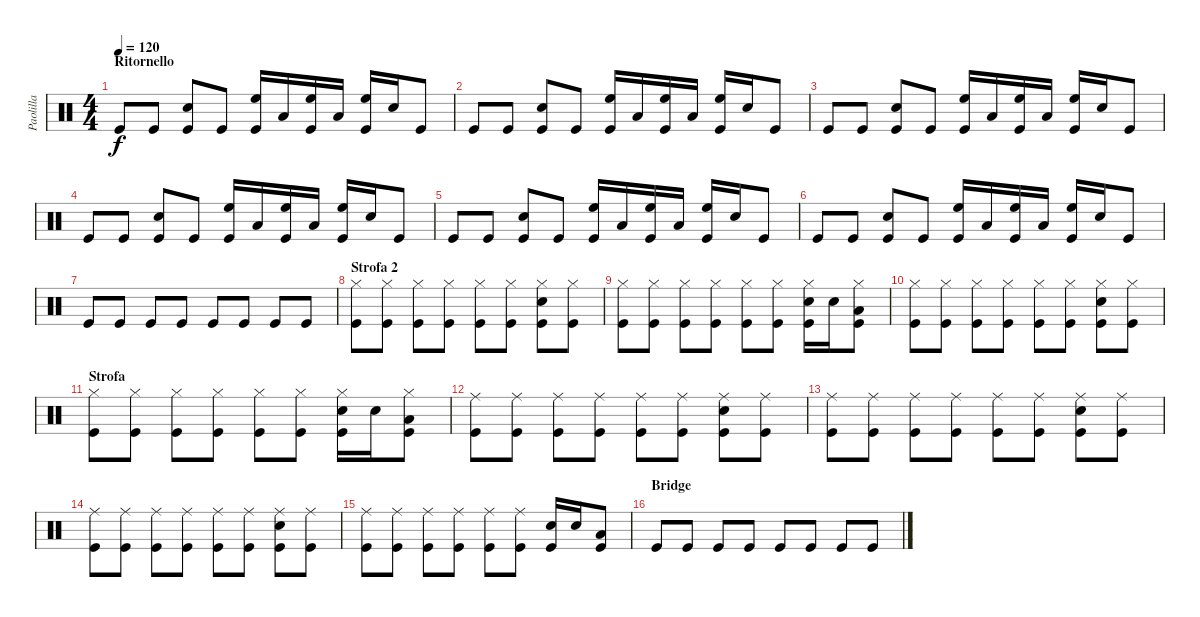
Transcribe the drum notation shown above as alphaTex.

\track ("Paolilla" "Paolilla") {instrument percussion}
\staff {score}
\articulation defaults
\ts (4 4)
\section ("" "Ritornello")
\tempo 120
\clef neutral
\ks c "Kick (hit)".8{dy f} "Kick (hit)".8
("Kick (hit)" "Snare (hit) 2").8 "Kick (hit)".8 ("High Floor Tom (hit)" "Kick (hit)").16 "Low Tom (hit)".16 ("High Floor Tom (hit)" "Kick (hit)").16 "Low Tom (hit)".16 ("High Floor Tom (hit)" "Kick (hit)").16 "Snare (hit) 2".16 "Kick (hit)".8 |
"Kick (hit)".8 "Kick (hit)".8 ("Kick (hit)" "Snare (hit) 2").8 "Kick (hit)".8 ("High Floor Tom (hit)" "Kick (hit)").16 "Low Tom (hit)".16 ("High Floor Tom (hit)" "Kick (hit)").16 "Low Tom (hit)".16 ("High Floor Tom (hit)" "Kick (hit)").16 "Snare (hit) 2".16 "Kick (hit)".8 |
"Kick (hit)".8 "Kick (hit)".8 ("Kick (hit)" "Snare (hit) 2").8 "Kick (hit)".8 ("High Floor Tom (hit)" "Kick (hit)").16 "Low Tom (hit)".16 ("High Floor Tom (hit)" "Kick (hit)").16 "Low Tom (hit)".16 ("High Floor Tom (hit)" "Kick (hit)").16 "Snare (hit) 2".16 "Kick (hit)".8 |
"Kick (hit)".8 "Kick (hit)".8 ("Kick (hit)" "Snare (hit) 2").8 "Kick (hit)".8 ("High Floor Tom (hit)" "Kick (hit)").16 "Low Tom (hit)".16 ("High Floor Tom (hit)" "Kick (hit)").16 "Low Tom (hit)".16 ("High Floor Tom (hit)" "Kick (hit)").16 "Snare (hit) 2".16 "Kick (hit)".8 |
"Kick (hit)".8 "Kick (hit)".8 ("Kick (hit)" "Snare (hit) 2").8 "Kick (hit)".8 ("High Floor Tom (hit)" "Kick (hit)").16 "Low Tom (hit)".16 ("High Floor Tom (hit)" "Kick (hit)").16 "Low Tom (hit)".16 ("High Floor Tom (hit)" "Kick (hit)").16 "Snare (hit) 2".16 "Kick (hit)".8 |
"Kick (hit)".8 "Kick (hit)".8 ("Kick (hit)" "Snare (hit) 2").8 "Kick (hit)".8 ("High Floor Tom (hit)" "Kick (hit)").16 "Low Tom (hit)".16 ("High Floor Tom (hit)" "Kick (hit)").16 "Low Tom (hit)".16 ("High Floor Tom (hit)" "Kick (hit)").16 "Snare (hit) 2".16 "Kick (hit)".8 |
"Kick (hit)".8 "Kick (hit)".8 "Kick (hit)".8 "Kick (hit)".8 "Kick (hit)".8 "Kick (hit)".8 "Kick (hit)".8 "Kick (hit)".8 |
\section ("" "Strofa 2")
("Hi-Hat (closed)" "Kick (hit)").8 ("Hi-Hat (closed)" "Kick (hit)").8 ("Hi-Hat (closed)" "Kick (hit)").8 ("Hi-Hat (closed)" "Kick (hit)").8 ("Hi-Hat (closed)" "Kick (hit)").8 ("Hi-Hat (closed)" "Kick (hit)").8 ("Hi-Hat (closed)" "Snare (hit) 2" "Kick (hit)").8 ("Hi-Hat (closed)" "Kick (hit)").8 |
("Hi-Hat (closed)" "Kick (hit)").8 ("Hi-Hat (closed)" "Kick (hit)").8 ("Hi-Hat (closed)" "Kick (hit)").8 ("Hi-Hat (closed)" "Kick (hit)").8 ("Hi-Hat (closed)" "Kick (hit)").8 ("Hi-Hat (closed)" "Kick (hit)").8 ("Hi-Hat (closed)" "Snare (hit) 2" "Kick (hit)").16 "Snare (hit) 2".16 ("Hi-Hat (closed)" "Low Tom (hit)" "Kick (hit)").8 |
("Hi-Hat (closed)" "Kick (hit)").8 ("Hi-Hat (closed)" "Kick (hit)").8 ("Hi-Hat (closed)" "Kick (hit)").8 ("Hi-Hat (closed)" "Kick (hit)").8 ("Hi-Hat (closed)" "Kick (hit)").8 ("Hi-Hat (closed)" "Kick (hit)").8 ("Hi-Hat (closed)" "Snare (hit) 2" "Kick (hit)").8 ("Hi-Hat (closed)" "Kick (hit)").8 |
\section ("" "Strofa")
("Hi-Hat (closed)" "Kick (hit)").8 ("Hi-Hat (closed)" "Kick (hit)").8 ("Hi-Hat (closed)" "Kick (hit)").8 ("Hi-Hat (closed)" "Kick (hit)").8 ("Hi-Hat (closed)" "Kick (hit)").8 ("Hi-Hat (closed)" "Kick (hit)").8 ("Hi-Hat (closed)" "Snare (hit) 2" "Kick (hit)").16 "Snare (hit) 2".16 ("Hi-Hat (closed)" "Low Tom (hit)" "Kick (hit)").8 |
("Ride (middle)" "Kick (hit)").8 ("Ride (middle)" "Kick (hit)").8 ("Ride (middle)" "Kick (hit)").8 ("Ride (middle)" "Kick (hit)").8 ("Ride (middle)" "Kick (hit)").8 ("Ride (middle)" "Kick (hit)").8 ("Ride (middle)" "Snare (hit) 2" "Kick (hit)").8 ("Ride (middle)" "Kick (hit)").8 |
("Ride (middle)" "Kick (hit)").8 ("Ride (middle)" "Kick (hit)").8 ("Ride (middle)" "Kick (hit)").8 ("Ride (middle)" "Kick (hit)").8 ("Ride (middle)" "Kick (hit)").8 ("Ride (middle)" "Kick (hit)").8 ("Ride (middle)" "Snare (hit) 2" "Kick (hit)").8 ("Ride (middle)" "Kick (hit)").8 |
("Ride (middle)" "Kick (hit)").8 ("Ride (middle)" "Kick (hit)").8 ("Ride (middle)" "Kick (hit)").8 ("Ride (middle)" "Kick (hit)").8 ("Ride (middle)" "Kick (hit)").8 ("Ride (middle)" "Kick (hit)").8 ("Ride (middle)" "Snare (hit) 2" "Kick (hit)").8 ("Ride (middle)" "Kick (hit)").8 |
("Ride (middle)" "Kick (hit)").8 ("Ride (middle)" "Kick (hit)").8 ("Ride (middle)" "Kick (hit)").8 ("Ride (middle)" "Kick (hit)").8 ("Ride (middle)" "Kick (hit)").8 ("Ride (middle)" "Kick (hit)").8 ("Snare (hit) 2" "Kick (hit)").16 "Snare (hit) 2".16 ("Low Tom (hit)" "Kick (hit)").8 |
\section ("" "Bridge")
"Kick (hit)".8 "Kick (hit)".8 "Kick (hit)".8 "Kick (hit)".8 "Kick (hit)".8 "Kick (hit)".8 "Kick (hit)".8 "Kick (hit)".8
